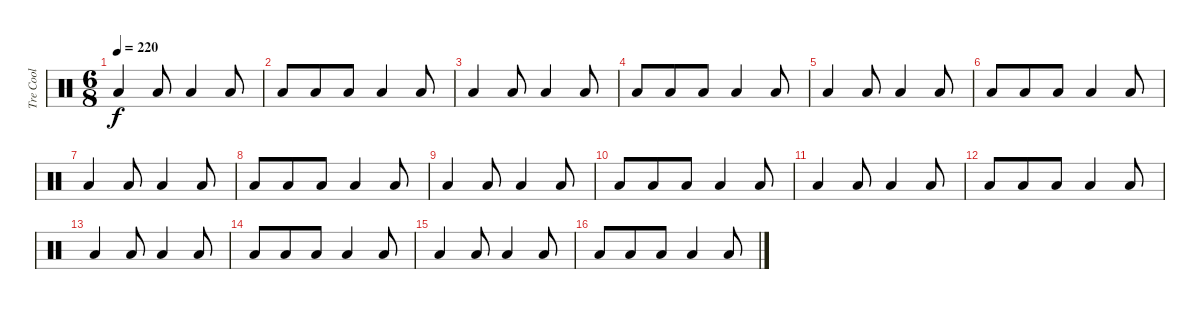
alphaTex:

\track ("Tre Cool" "Tre Cool") {instrument percussion}
\staff {score}
\articulation defaults
\ts (6 8)
\tempo 220
\clef neutral
\ks c "Low Floor Tom (hit)".4{dy f} "Low Floor Tom (hit)".8 "Low Tom (hit)".4 "Low Tom (hit)".8
|
"Low Floor Tom (hit)".8 "Low Floor Tom (hit)".8 "Low Floor Tom (hit)".8 "Low Tom (hit)".4 "Low Tom (hit)".8 |
"Low Floor Tom (hit)".4 "Low Floor Tom (hit)".8 "Low Tom (hit)".4 "Low Tom (hit)".8 |
"Low Floor Tom (hit)".8 "Low Floor Tom (hit)".8 "Low Floor Tom (hit)".8 "Low Tom (hit)".4 "Low Tom (hit)".8 |
"Low Floor Tom (hit)".4 "Low Floor Tom (hit)".8 "Low Tom (hit)".4 "Low Tom (hit)".8 |
"Low Floor Tom (hit)".8 "Low Floor Tom (hit)".8 "Low Floor Tom (hit)".8 "Low Tom (hit)".4 "Low Tom (hit)".8 |
"Low Floor Tom (hit)".4 "Low Floor Tom (hit)".8 "Low Tom (hit)".4 "Low Tom (hit)".8 |
"Low Floor Tom (hit)".8 "Low Floor Tom (hit)".8 "Low Floor Tom (hit)".8 "Low Tom (hit)".4 "Low Tom (hit)".8 |
"Low Floor Tom (hit)".4 "Low Floor Tom (hit)".8 "Low Tom (hit)".4 "Low Tom (hit)".8 |
"Low Floor Tom (hit)".8 "Low Floor Tom (hit)".8 "Low Floor Tom (hit)".8 "Low Tom (hit)".4 "Low Tom (hit)".8 |
"Low Floor Tom (hit)".4 "Low Floor Tom (hit)".8 "Low Tom (hit)".4 "Low Tom (hit)".8 |
"Low Floor Tom (hit)".8 "Low Floor Tom (hit)".8 "Low Floor Tom (hit)".8 "Low Tom (hit)".4 "Low Tom (hit)".8 |
"Low Floor Tom (hit)".4{volume 9} "Low Floor Tom (hit)".8 "Low Tom (hit)".4 "Low Tom (hit)".8 |
"Low Floor Tom (hit)".8 "Low Floor Tom (hit)".8 "Low Floor Tom (hit)".8 "Low Tom (hit)".4 "Low Tom (hit)".8 |
"Low Floor Tom (hit)".4 "Low Floor Tom (hit)".8 "Low Tom (hit)".4 "Low Tom (hit)".8 |
"Low Floor Tom (hit)".8 "Low Floor Tom (hit)".8 "Low Floor Tom (hit)".8 "Low Tom (hit)".4 "Low Tom (hit)".8
